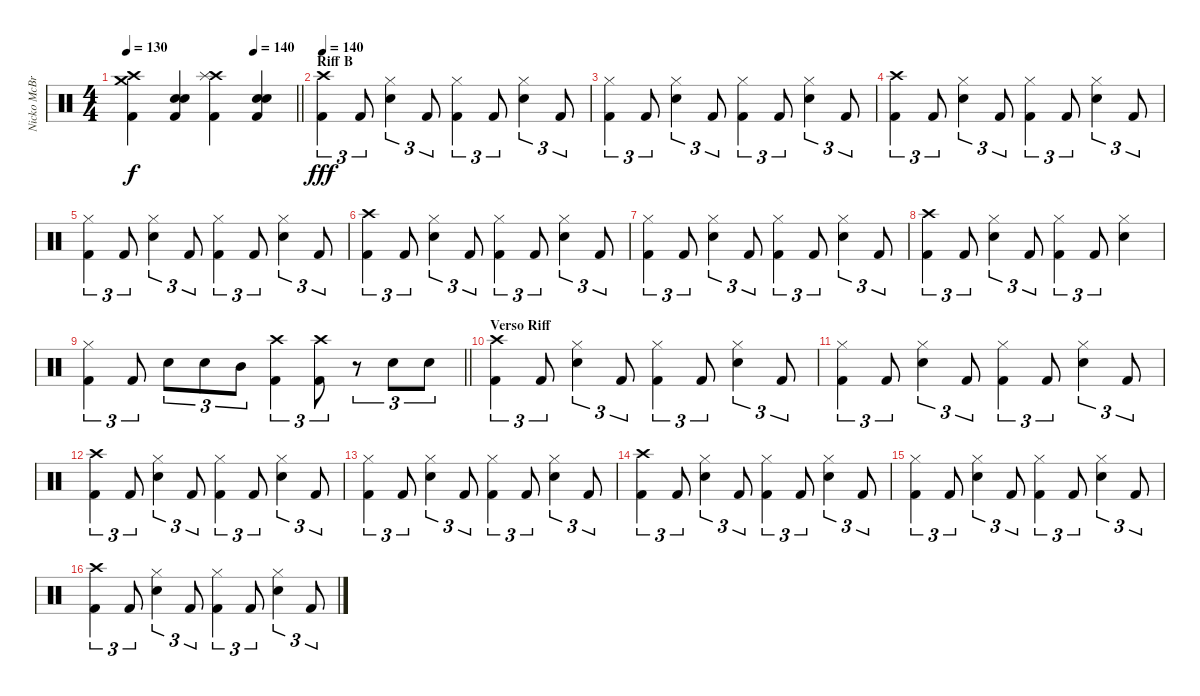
\track ("Nicko McBrain" "Nicko McBr") {instrument percussion}
\staff {score}
\articulation defaults
\ts (4 4)
\tempo 130
\tempo (140 0.75)
\clef neutral
\barLineRight lightlight
\ks c
("Kick (hit) 2" "Crash high (hit)" "Crash medium (hit)").4{dy f} ("Snare (hit) 2" "Snare (hit) 2" "Kick (hit) 2").4 ("Kick (hit) 2" "Crash high (hit)" "Splash (hit)").4 ("Snare (hit) 2" "Snare (hit) 2" "Kick (hit) 2").4 |
\section ("" "Riff B")
\tempo 140
("Crash high (hit)" "Kick (hit) 2").4{tu (3 2) dy fff} "Kick (hit) 2".8{tu (3 2)} ("Hi-Hat (closed)" "Snare (hit) 2").4{tu (3 2)} "Kick (hit) 2".8{tu (3 2)} ("Kick (hit) 2" "Hi-Hat (closed)").4{tu (3 2)} "Kick (hit) 2".8{tu (3 2)} ("Hi-Hat (closed)" "Snare (hit) 2").4{tu (3 2)} "Kick (hit) 2".8{tu (3 2)} |
("Kick (hit) 2" "Hi-Hat (closed)").4{tu (3 2)} "Kick (hit) 2".8{tu (3 2)} ("Hi-Hat (closed)" "Snare (hit) 2").4{tu (3 2)} "Kick (hit) 2".8{tu (3 2)} ("Kick (hit) 2" "Hi-Hat (closed)").4{tu (3 2)} "Kick (hit) 2".8{tu (3 2)} ("Hi-Hat (closed)" "Snare (hit) 2").4{tu (3 2)} "Kick (hit) 2".8{tu (3 2)} |
("Crash high (hit)" "Kick (hit) 2").4{tu (3 2)} "Kick (hit) 2".8{tu (3 2)} ("Hi-Hat (closed)" "Snare (hit) 2").4{tu (3 2)} "Kick (hit) 2".8{tu (3 2)} ("Kick (hit) 2" "Hi-Hat (closed)").4{tu (3 2)} "Kick (hit) 2".8{tu (3 2)} ("Hi-Hat (closed)" "Snare (hit) 2").4{tu (3 2)} "Kick (hit) 2".8{tu (3 2)} |
("Kick (hit) 2" "Hi-Hat (closed)").4{tu (3 2)} "Kick (hit) 2".8{tu (3 2)} ("Hi-Hat (closed)" "Snare (hit) 2").4{tu (3 2)} "Kick (hit) 2".8{tu (3 2)} ("Kick (hit) 2" "Hi-Hat (closed)").4{tu (3 2)} "Kick (hit) 2".8{tu (3 2)} ("Hi-Hat (closed)" "Snare (hit) 2").4{tu (3 2)} "Kick (hit) 2".8{tu (3 2)} |
("Crash high (hit)" "Kick (hit) 2").4{tu (3 2)} "Kick (hit) 2".8{tu (3 2)} ("Hi-Hat (closed)" "Snare (hit) 2").4{tu (3 2)} "Kick (hit) 2".8{tu (3 2)} ("Kick (hit) 2" "Hi-Hat (closed)").4{tu (3 2)} "Kick (hit) 2".8{tu (3 2)} ("Hi-Hat (closed)" "Snare (hit) 2").4{tu (3 2)} "Kick (hit) 2".8{tu (3 2)} |
("Kick (hit) 2" "Hi-Hat (closed)").4{tu (3 2)} "Kick (hit) 2".8{tu (3 2)} ("Hi-Hat (closed)" "Snare (hit) 2").4{tu (3 2)} "Kick (hit) 2".8{tu (3 2)} ("Kick (hit) 2" "Hi-Hat (closed)").4{tu (3 2)} "Kick (hit) 2".8{tu (3 2)} ("Hi-Hat (closed)" "Snare (hit) 2").4{tu (3 2)} "Kick (hit) 2".8{tu (3 2)} |
("Crash high (hit)" "Kick (hit) 2").4{tu (3 2)} "Kick (hit) 2".8{tu (3 2)} ("Hi-Hat (closed)" "Snare (hit) 2").4{tu (3 2)} "Kick (hit) 2".8{tu (3 2)} ("Kick (hit) 2" "Hi-Hat (closed)").4{tu (3 2)} "Kick (hit) 2".8{tu (3 2)} ("Hi-Hat (closed)" "Snare (hit) 2").4 |
\barLineRight lightlight
("Hi-Hat (closed)" "Kick (hit) 2").4{tu (3 2)} "Kick (hit) 2".8{tu (3 2)} "Snare (hit) 2".8{tu (3 2)} "Snare (hit) 2".8{tu (3 2)} "Mid Tom (hit)".8{tu (3 2)} ("Kick (hit) 2" "Crash high (hit)").4{tu (3 2)} ("Kick (hit) 2" "Crash high (hit)").8{tu (3 2)} r.8{tu (3 2)} "Snare (hit) 2".8{tu (3 2)} "Snare (hit) 2".8{tu (3 2)} |
\section ("" "Verso Riff")
("Crash high (hit)" "Kick (hit) 2").4{tu (3 2)} "Kick (hit) 2".8{tu (3 2)} ("Hi-Hat (closed)" "Snare (hit) 2").4{tu (3 2)} "Kick (hit) 2".8{tu (3 2)} ("Kick (hit) 2" "Hi-Hat (closed)").4{tu (3 2)} "Kick (hit) 2".8{tu (3 2)} ("Hi-Hat (closed)" "Snare (hit) 2").4{tu (3 2)} "Kick (hit) 2".8{tu (3 2)} |
("Kick (hit) 2" "Hi-Hat (closed)").4{tu (3 2)} "Kick (hit) 2".8{tu (3 2)} ("Hi-Hat (closed)" "Snare (hit) 2").4{tu (3 2)} "Kick (hit) 2".8{tu (3 2)} ("Kick (hit) 2" "Hi-Hat (closed)").4{tu (3 2)} "Kick (hit) 2".8{tu (3 2)} ("Hi-Hat (closed)" "Snare (hit) 2").4{tu (3 2)} "Kick (hit) 2".8{tu (3 2)} |
("Crash high (hit)" "Kick (hit) 2").4{tu (3 2)} "Kick (hit) 2".8{tu (3 2)} ("Hi-Hat (closed)" "Snare (hit) 2").4{tu (3 2)} "Kick (hit) 2".8{tu (3 2)} ("Kick (hit) 2" "Hi-Hat (closed)").4{tu (3 2)} "Kick (hit) 2".8{tu (3 2)} ("Hi-Hat (closed)" "Snare (hit) 2").4{tu (3 2)} "Kick (hit) 2".8{tu (3 2)} |
("Kick (hit) 2" "Hi-Hat (closed)").4{tu (3 2)} "Kick (hit) 2".8{tu (3 2)} ("Hi-Hat (closed)" "Snare (hit) 2").4{tu (3 2)} "Kick (hit) 2".8{tu (3 2)} ("Kick (hit) 2" "Hi-Hat (closed)").4{tu (3 2)} "Kick (hit) 2".8{tu (3 2)} ("Hi-Hat (closed)" "Snare (hit) 2").4{tu (3 2)} "Kick (hit) 2".8{tu (3 2)} |
("Crash high (hit)" "Kick (hit) 2").4{tu (3 2)} "Kick (hit) 2".8{tu (3 2)} ("Hi-Hat (closed)" "Snare (hit) 2").4{tu (3 2)} "Kick (hit) 2".8{tu (3 2)} ("Kick (hit) 2" "Hi-Hat (closed)").4{tu (3 2)} "Kick (hit) 2".8{tu (3 2)} ("Hi-Hat (closed)" "Snare (hit) 2").4{tu (3 2)} "Kick (hit) 2".8{tu (3 2)} |
("Kick (hit) 2" "Hi-Hat (closed)").4{tu (3 2)} "Kick (hit) 2".8{tu (3 2)} ("Hi-Hat (closed)" "Snare (hit) 2").4{tu (3 2)} "Kick (hit) 2".8{tu (3 2)} ("Kick (hit) 2" "Hi-Hat (closed)").4{tu (3 2)} "Kick (hit) 2".8{tu (3 2)} ("Hi-Hat (closed)" "Snare (hit) 2").4{tu (3 2)} "Kick (hit) 2".8{tu (3 2)} |
("Crash high (hit)" "Kick (hit) 2").4{tu (3 2)} "Kick (hit) 2".8{tu (3 2)} ("Hi-Hat (closed)" "Snare (hit) 2").4{tu (3 2)} "Kick (hit) 2".8{tu (3 2)} ("Kick (hit) 2" "Hi-Hat (closed)").4{tu (3 2)} "Kick (hit) 2".8{tu (3 2)} ("Hi-Hat (closed)" "Snare (hit) 2").4{tu (3 2)} "Kick (hit) 2".8{tu (3 2)}
